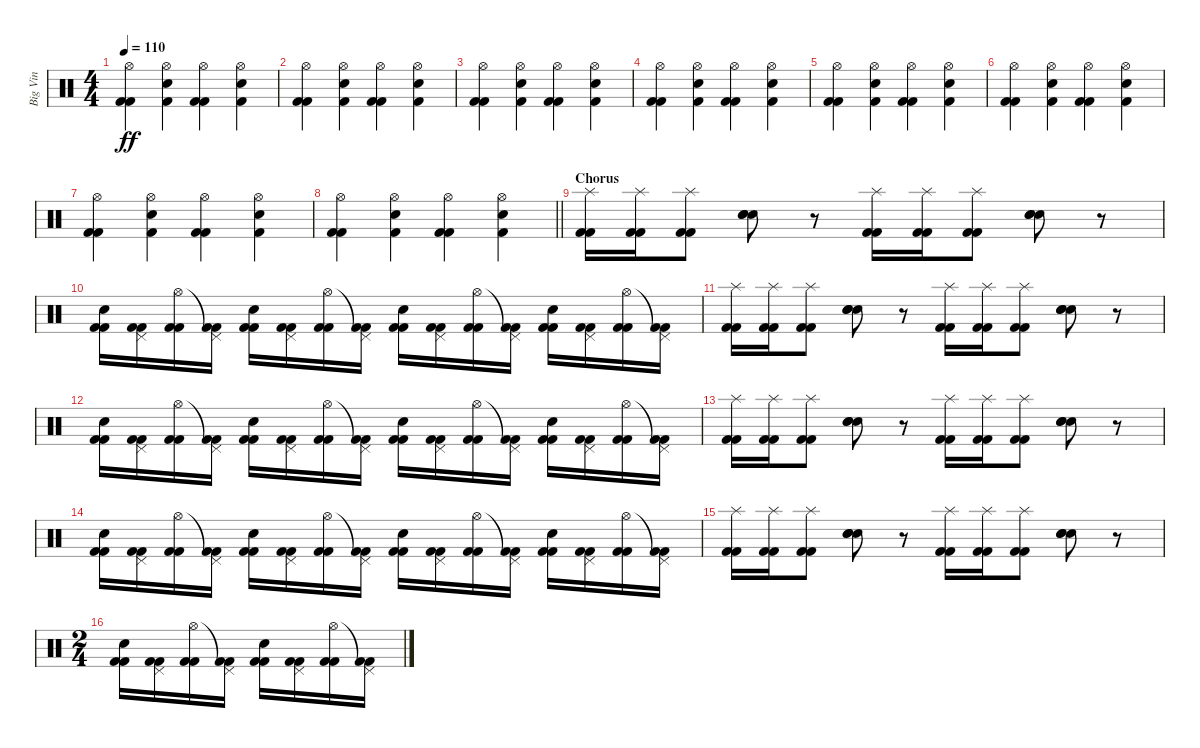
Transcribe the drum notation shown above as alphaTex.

\track ("Big Vin" "Big Vin") {instrument percussion}
\staff {score}
\articulation defaults
\ts (4 4)
\tempo 110
\clef neutral
\ks c
("Hi-Hat (open)" "Kick (hit) 2" "Kick (hit) 2").4{dy ff} ("Hi-Hat (open)" "Snare (hit) 2" "Kick (hit) 2").4 ("Hi-Hat (open)" "Kick (hit) 2" "Kick (hit) 2").4 ("Hi-Hat (open)" "Snare (hit) 2" "Kick (hit) 2").4 |
("Hi-Hat (open)" "Kick (hit) 2" "Kick (hit) 2").4 ("Hi-Hat (open)" "Snare (hit) 2" "Kick (hit) 2").4 ("Hi-Hat (open)" "Kick (hit) 2" "Kick (hit) 2").4 ("Hi-Hat (open)" "Snare (hit) 2" "Kick (hit) 2").4 |
("Hi-Hat (open)" "Kick (hit) 2" "Kick (hit) 2").4 ("Hi-Hat (open)" "Snare (hit) 2" "Kick (hit) 2").4 ("Hi-Hat (open)" "Kick (hit) 2" "Kick (hit) 2").4 ("Hi-Hat (open)" "Snare (hit) 2" "Kick (hit) 2").4 |
("Hi-Hat (open)" "Kick (hit) 2" "Kick (hit) 2").4 ("Hi-Hat (open)" "Snare (hit) 2" "Kick (hit) 2").4 ("Hi-Hat (open)" "Kick (hit) 2" "Kick (hit) 2").4 ("Hi-Hat (open)" "Snare (hit) 2" "Kick (hit) 2").4 |
("Hi-Hat (open)" "Kick (hit) 2" "Kick (hit) 2").4 ("Hi-Hat (open)" "Snare (hit) 2" "Kick (hit) 2").4 ("Hi-Hat (open)" "Kick (hit) 2" "Kick (hit) 2").4 ("Hi-Hat (open)" "Snare (hit) 2" "Kick (hit) 2").4 |
("Hi-Hat (open)" "Kick (hit) 2" "Kick (hit) 2").4 ("Hi-Hat (open)" "Snare (hit) 2" "Kick (hit) 2").4 ("Hi-Hat (open)" "Kick (hit) 2" "Kick (hit) 2").4 ("Hi-Hat (open)" "Snare (hit) 2" "Kick (hit) 2").4 |
("Hi-Hat (open)" "Kick (hit) 2" "Kick (hit) 2").4 ("Hi-Hat (open)" "Snare (hit) 2" "Kick (hit) 2").4 ("Hi-Hat (open)" "Kick (hit) 2" "Kick (hit) 2").4 ("Hi-Hat (open)" "Snare (hit) 2" "Kick (hit) 2").4 |
\barLineRight lightlight
("Hi-Hat (open)" "Kick (hit) 2" "Kick (hit) 2").4 ("Hi-Hat (open)" "Snare (hit) 2" "Kick (hit) 2").4 ("Hi-Hat (open)" "Kick (hit) 2" "Kick (hit) 2").4 ("Hi-Hat (open)" "Snare (hit) 2" "Kick (hit) 2").4 |
\section ("" "Chorus")
("Splash (hit)" "Kick (hit) 2" "Kick (hit) 2").16 ("Splash (hit)" "Kick (hit) 2" "Kick (hit) 2").16 ("Splash (hit)" "Kick (hit) 2" "Kick (hit) 2").8 ("Snare (hit) 2" "Snare (hit) 2" "Snare (hit) 2").8 r.8 ("Splash (hit)" "Kick (hit) 2" "Kick (hit) 2").16 ("Splash (hit)" "Kick (hit) 2" "Kick (hit) 2").16 ("Splash (hit)" "Kick (hit) 2" "Kick (hit) 2").8 ("Snare (hit) 2" "Snare (hit) 2" "Snare (hit) 2").8 r.8 |
("Snare (hit) 2" "Kick (hit) 2" "Kick (hit) 2").16 ("Pedal Hi-Hat (hit)" "Kick (hit) 2" "Kick (hit) 2").16 ("Hi-Hat (open)" "Kick (hit) 2" "Kick (hit) 2").16 ("Pedal Hi-Hat (hit)"{t} "Kick (hit) 2" "Kick (hit) 2").16 ("Snare (hit) 2" "Kick (hit) 2" "Kick (hit) 2").16 ("Pedal Hi-Hat (hit)" "Kick (hit) 2" "Kick (hit) 2").16 ("Hi-Hat (open)" "Kick (hit) 2" "Kick (hit) 2").16 ("Pedal Hi-Hat (hit)"{t} "Kick (hit) 2" "Kick (hit) 2").16 ("Snare (hit) 2" "Kick (hit) 2" "Kick (hit) 2").16 ("Pedal Hi-Hat (hit)" "Kick (hit) 2" "Kick (hit) 2").16 ("Hi-Hat (open)" "Kick (hit) 2" "Kick (hit) 2").16 ("Pedal Hi-Hat (hit)"{t} "Kick (hit) 2" "Kick (hit) 2").16 ("Snare (hit) 2" "Kick (hit) 2" "Kick (hit) 2").16 ("Pedal Hi-Hat (hit)" "Kick (hit) 2" "Kick (hit) 2").16 ("Hi-Hat (open)" "Kick (hit) 2" "Kick (hit) 2").16 ("Pedal Hi-Hat (hit)"{t} "Kick (hit) 2" "Kick (hit) 2").16 |
("Splash (hit)" "Kick (hit) 2" "Kick (hit) 2").16 ("Splash (hit)" "Kick (hit) 2" "Kick (hit) 2").16 ("Splash (hit)" "Kick (hit) 2" "Kick (hit) 2").8 ("Snare (hit) 2" "Snare (hit) 2" "Snare (hit) 2").8 r.8 ("Splash (hit)" "Kick (hit) 2" "Kick (hit) 2").16 ("Splash (hit)" "Kick (hit) 2" "Kick (hit) 2").16 ("Splash (hit)" "Kick (hit) 2" "Kick (hit) 2").8 ("Snare (hit) 2" "Snare (hit) 2" "Snare (hit) 2").8 r.8 |
("Snare (hit) 2" "Kick (hit) 2" "Kick (hit) 2").16 ("Pedal Hi-Hat (hit)" "Kick (hit) 2" "Kick (hit) 2").16 ("Hi-Hat (open)" "Kick (hit) 2" "Kick (hit) 2").16 ("Pedal Hi-Hat (hit)"{t} "Kick (hit) 2" "Kick (hit) 2").16 ("Snare (hit) 2" "Kick (hit) 2" "Kick (hit) 2").16 ("Pedal Hi-Hat (hit)" "Kick (hit) 2" "Kick (hit) 2").16 ("Hi-Hat (open)" "Kick (hit) 2" "Kick (hit) 2").16 ("Pedal Hi-Hat (hit)"{t} "Kick (hit) 2" "Kick (hit) 2").16 ("Snare (hit) 2" "Kick (hit) 2" "Kick (hit) 2").16 ("Pedal Hi-Hat (hit)" "Kick (hit) 2" "Kick (hit) 2").16 ("Hi-Hat (open)" "Kick (hit) 2" "Kick (hit) 2").16 ("Pedal Hi-Hat (hit)"{t} "Kick (hit) 2" "Kick (hit) 2").16 ("Snare (hit) 2" "Kick (hit) 2" "Kick (hit) 2").16 ("Pedal Hi-Hat (hit)" "Kick (hit) 2" "Kick (hit) 2").16 ("Hi-Hat (open)" "Kick (hit) 2" "Kick (hit) 2").16 ("Pedal Hi-Hat (hit)"{t} "Kick (hit) 2" "Kick (hit) 2").16 |
("Splash (hit)" "Kick (hit) 2" "Kick (hit) 2").16 ("Splash (hit)" "Kick (hit) 2" "Kick (hit) 2").16 ("Splash (hit)" "Kick (hit) 2" "Kick (hit) 2").8 ("Snare (hit) 2" "Snare (hit) 2" "Snare (hit) 2").8 r.8 ("Splash (hit)" "Kick (hit) 2" "Kick (hit) 2").16 ("Splash (hit)" "Kick (hit) 2" "Kick (hit) 2").16 ("Splash (hit)" "Kick (hit) 2" "Kick (hit) 2").8 ("Snare (hit) 2" "Snare (hit) 2" "Snare (hit) 2").8 r.8 |
("Snare (hit) 2" "Kick (hit) 2" "Kick (hit) 2").16 ("Pedal Hi-Hat (hit)" "Kick (hit) 2" "Kick (hit) 2").16 ("Hi-Hat (open)" "Kick (hit) 2" "Kick (hit) 2").16 ("Pedal Hi-Hat (hit)"{t} "Kick (hit) 2" "Kick (hit) 2").16 ("Snare (hit) 2" "Kick (hit) 2" "Kick (hit) 2").16 ("Pedal Hi-Hat (hit)" "Kick (hit) 2" "Kick (hit) 2").16 ("Hi-Hat (open)" "Kick (hit) 2" "Kick (hit) 2").16 ("Pedal Hi-Hat (hit)"{t} "Kick (hit) 2" "Kick (hit) 2").16 ("Snare (hit) 2" "Kick (hit) 2" "Kick (hit) 2").16 ("Pedal Hi-Hat (hit)" "Kick (hit) 2" "Kick (hit) 2").16 ("Hi-Hat (open)" "Kick (hit) 2" "Kick (hit) 2").16 ("Pedal Hi-Hat (hit)"{t} "Kick (hit) 2" "Kick (hit) 2").16 ("Snare (hit) 2" "Kick (hit) 2" "Kick (hit) 2").16 ("Pedal Hi-Hat (hit)" "Kick (hit) 2" "Kick (hit) 2").16 ("Hi-Hat (open)" "Kick (hit) 2" "Kick (hit) 2").16 ("Pedal Hi-Hat (hit)"{t} "Kick (hit) 2" "Kick (hit) 2").16 |
("Splash (hit)" "Kick (hit) 2" "Kick (hit) 2").16 ("Splash (hit)" "Kick (hit) 2" "Kick (hit) 2").16 ("Splash (hit)" "Kick (hit) 2" "Kick (hit) 2").8 ("Snare (hit) 2" "Snare (hit) 2" "Snare (hit) 2").8 r.8 ("Splash (hit)" "Kick (hit) 2" "Kick (hit) 2").16 ("Splash (hit)" "Kick (hit) 2" "Kick (hit) 2").16 ("Splash (hit)" "Kick (hit) 2" "Kick (hit) 2").8 ("Snare (hit) 2" "Snare (hit) 2" "Snare (hit) 2").8 r.8 |
\ts (2 4)
("Snare (hit) 2" "Kick (hit) 2" "Kick (hit) 2").16 ("Pedal Hi-Hat (hit)" "Kick (hit) 2" "Kick (hit) 2").16 ("Hi-Hat (open)" "Kick (hit) 2" "Kick (hit) 2").16 ("Pedal Hi-Hat (hit)"{t} "Kick (hit) 2" "Kick (hit) 2").16 ("Snare (hit) 2" "Kick (hit) 2" "Kick (hit) 2").16 ("Pedal Hi-Hat (hit)" "Kick (hit) 2" "Kick (hit) 2").16 ("Hi-Hat (open)" "Kick (hit) 2" "Kick (hit) 2").16 ("Pedal Hi-Hat (hit)"{t} "Kick (hit) 2" "Kick (hit) 2").16
